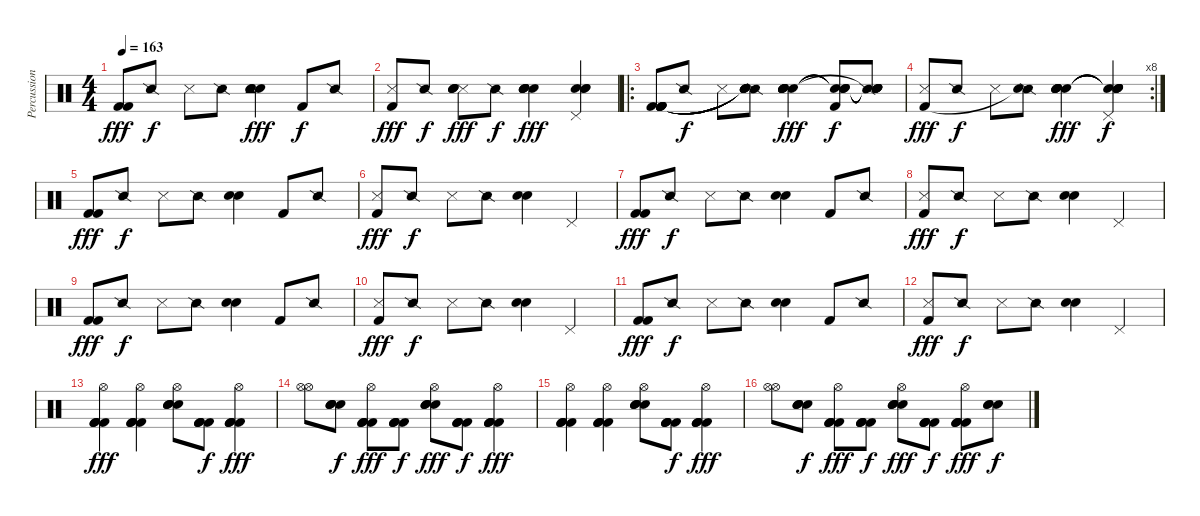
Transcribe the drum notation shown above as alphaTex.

\track ("Percussion" "Percussion") {instrument percussion}
\staff {score}
\articulation defaults
\ts (4 4)
\tempo 163
\clef neutral
\ks c
("Kick (hit) 2" "Kick (hit) 2").8{dy fff} "Snare (side stick) 2".8{dy f} "Metronome (hit)".8 "Snare (side stick) 2".8 ("Snare (hit) 2" "Hand Clap (hit)" "Tambourine (hit)" "Electric Snare (hit)").4{dy fff} "Kick (hit) 2".8{dy f} "Snare (side stick) 2".8 |
("Metronome (hit)" "Kick (hit) 2").8{dy fff} "Snare (side stick) 2".8{dy f} ("Metronome (hit)" "Electric Snare (hit)" "Electric Snare (hit)" "Electric Snare (hit)").8{dy fff} "Snare (side stick) 2".8{dy f} ("Snare (hit) 2" "Hand Clap (hit)" "Electric Snare (hit)" "Electric Snare (hit)" "Electric Snare (hit)").4{dy fff} ("Pedal Hi-Hat (hit)" "Electric Snare (hit)" "Electric Snare (hit)" "Electric Snare (hit)").4 |
\ro
("Kick (hit) 2" "Kick (hit) 2" "Kick (hit) 2" "Kick (hit) 2" "Kick (hit) 2" "Kick (hit) 2").8 "Snare (side stick) 2".8{dy f} "Metronome (hit)".8 ("Snare (side stick) 2" "Snare (hit)"{t} "Snare (hit)"{t} "Snare (hit)"{t} "Snare (hit)"{t} "Snare (hit)"{t}).8 ("Snare (hit) 2" "Hand Clap (hit)" "Snare (hit) 2" "Hand Clap (hit)" "Snare (hit) 2" "Snare (hit) 2").4{dy fff} ("Kick (hit) 2" "Hand Clap (hit)"{t} "Hand Clap (hit)"{t} "Hand Clap (hit)"{t} "Snare (hit)"{t}).8{dy f} ("Snare (side stick) 2" "Snare (hit)"{t} "Snare (hit)"{t} "Snare (hit)"{t} "Snare (hit)"{t} "Snare (hit)"{t}).8 |
\rc 8
("Metronome (hit)" "Kick (hit) 2").8{dy fff} "Snare (side stick) 2".8{dy f} "Metronome (hit)".8 ("Snare (side stick) 2" "Snare (hit)"{t}).8 ("Snare (hit) 2" "Hand Clap (hit)" "Snare (hit) 2" "Hand Clap (hit)" "Snare (hit) 2" "Hand Clap (hit)").4{dy fff} ("Pedal Hi-Hat (hit)" "Snare (hit)"{t} "Snare (hit)"{t} "Snare (hit)"{t} "Snare (hit)"{t} "Snare (hit)"{t}).4{dy f} |
("Kick (hit) 2" "Kick (hit) 2").8{dy fff} "Snare (side stick) 2".8{dy f} "Metronome (hit)".8 "Snare (side stick) 2".8 ("Snare (hit) 2" "Hand Clap (hit)").4 "Kick (hit) 2".8 "Snare (side stick) 2".8 |
("Metronome (hit)" "Kick (hit) 2").8{dy fff} "Snare (side stick) 2".8{dy f} "Metronome (hit)".8 "Snare (side stick) 2".8 ("Snare (hit) 2" "Hand Clap (hit)").4 "Pedal Hi-Hat (hit)".4 |
("Kick (hit) 2" "Kick (hit) 2").8{dy fff} "Snare (side stick) 2".8{dy f} "Metronome (hit)".8 "Snare (side stick) 2".8 ("Snare (hit) 2" "Hand Clap (hit)").4 "Kick (hit) 2".8 "Snare (side stick) 2".8 |
("Metronome (hit)" "Kick (hit) 2").8{dy fff} "Snare (side stick) 2".8{dy f} "Metronome (hit)".8 "Snare (side stick) 2".8 ("Snare (hit) 2" "Hand Clap (hit)").4 "Pedal Hi-Hat (hit)".4 |
("Kick (hit) 2" "Kick (hit) 2").8{dy fff} "Snare (side stick) 2".8{dy f} "Metronome (hit)".8 "Snare (side stick) 2".8 ("Snare (hit) 2" "Hand Clap (hit)").4 "Kick (hit) 2".8 "Snare (side stick) 2".8 |
("Metronome (hit)" "Kick (hit) 2").8{dy fff} "Snare (side stick) 2".8{dy f} "Metronome (hit)".8 "Snare (side stick) 2".8 ("Snare (hit) 2" "Hand Clap (hit)").4 "Pedal Hi-Hat (hit)".4 |
("Kick (hit) 2" "Kick (hit) 2").8{dy fff} "Snare (side stick) 2".8{dy f} "Metronome (hit)".8 "Snare (side stick) 2".8 ("Snare (hit) 2" "Hand Clap (hit)").4 "Kick (hit) 2".8 "Snare (side stick) 2".8 |
("Metronome (hit)" "Kick (hit) 2").8{dy fff} "Snare (side stick) 2".8{dy f} "Metronome (hit)".8 "Snare (side stick) 2".8 ("Snare (hit) 2" "Hand Clap (hit)").4 "Pedal Hi-Hat (hit)".4 |
("Kick (hit) 2" "Hi-Hat (open)" "Kick (hit) 2" "Kick (hit) 2" "Kick (hit) 2").4{dy fff volume 16} ("Kick (hit) 2" "Hi-Hat (open)" "Kick (hit) 2" "Kick (hit) 2" "Kick (hit) 2").4 ("Electric Snare (hit)" "Hi-Hat (open)" "Electric Snare (hit)" "Electric Snare (hit)" "Electric Snare (hit)").8 ("Kick (hit) 2" "Kick (hit) 2" "Kick (hit) 2" "Kick (hit) 2").8{dy f} ("Kick (hit) 2" "Hi-Hat (open)" "Kick (hit) 2" "Kick (hit) 2" "Kick (hit) 2").4{dy fff} |
("Hi-Hat (open)" "Hi-Hat (open)").8 ("Electric Snare (hit)" "Electric Snare (hit)" "Electric Snare (hit)" "Electric Snare (hit)").8{dy f} ("Kick (hit) 2" "Hi-Hat (open)" "Kick (hit) 2" "Kick (hit) 2" "Kick (hit) 2").8{dy fff} ("Kick (hit) 2" "Kick (hit) 2" "Kick (hit) 2" "Kick (hit) 2").8{dy f} ("Electric Snare (hit)" "Hi-Hat (open)" "Electric Snare (hit)" "Electric Snare (hit)" "Electric Snare (hit)").8{dy fff} ("Kick (hit) 2" "Kick (hit) 2" "Kick (hit) 2" "Kick (hit) 2").8{dy f} ("Kick (hit) 2" "Hi-Hat (open)" "Kick (hit) 2" "Kick (hit) 2" "Kick (hit) 2").4{dy fff} |
("Kick (hit) 2" "Hi-Hat (open)" "Kick (hit) 2" "Kick (hit) 2" "Kick (hit) 2").4 ("Kick (hit) 2" "Hi-Hat (open)" "Kick (hit) 2" "Kick (hit) 2" "Kick (hit) 2").4 ("Electric Snare (hit)" "Hi-Hat (open)" "Electric Snare (hit)" "Electric Snare (hit)" "Electric Snare (hit)").8 ("Kick (hit) 2" "Kick (hit) 2" "Kick (hit) 2" "Kick (hit) 2").8{dy f} ("Kick (hit) 2" "Hi-Hat (open)" "Kick (hit) 2" "Kick (hit) 2" "Kick (hit) 2").4{dy fff} |
("Hi-Hat (open)" "Hi-Hat (open)").8 ("Electric Snare (hit)" "Electric Snare (hit)" "Electric Snare (hit)" "Electric Snare (hit)").8{dy f} ("Kick (hit) 2" "Hi-Hat (open)" "Kick (hit) 2" "Kick (hit) 2" "Kick (hit) 2").8{dy fff} ("Kick (hit) 2" "Kick (hit) 2" "Kick (hit) 2" "Kick (hit) 2").8{dy f} ("Electric Snare (hit)" "Hi-Hat (open)" "Electric Snare (hit)" "Electric Snare (hit)" "Electric Snare (hit)").8{dy fff} ("Kick (hit) 2" "Kick (hit) 2" "Kick (hit) 2" "Kick (hit) 2").8{dy f} ("Kick (hit) 2" "Hi-Hat (open)" "Kick (hit) 2" "Kick (hit) 2" "Kick (hit) 2").8{dy fff} ("Electric Snare (hit)" "Electric Snare (hit)" "Electric Snare (hit)").8{dy f}
